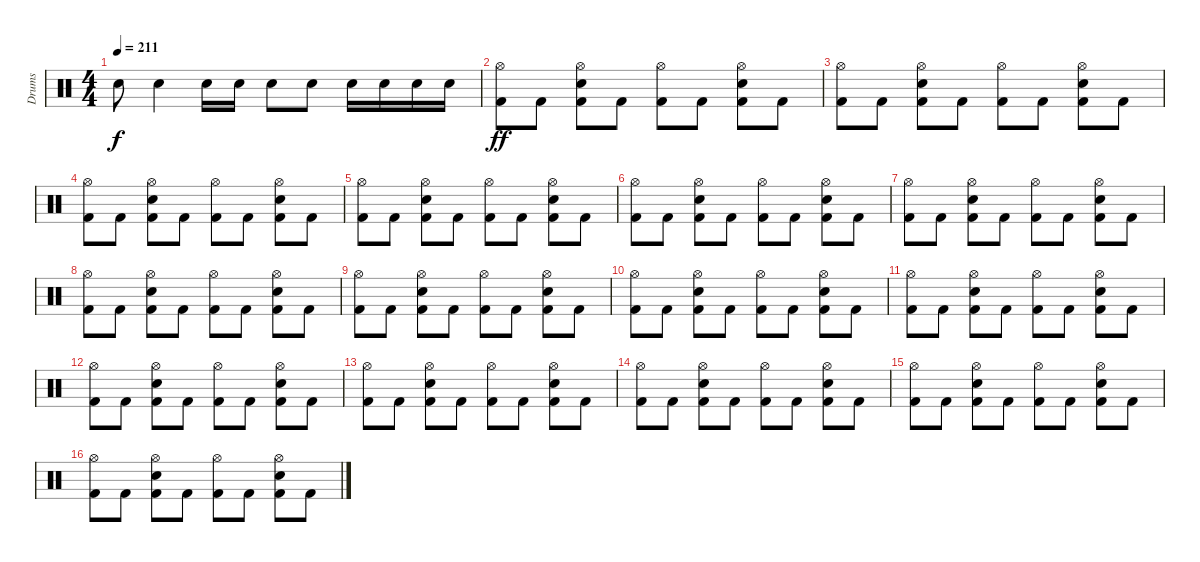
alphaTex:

\track ("Drums" "Drums") {instrument percussion}
\staff {score}
\articulation defaults
\ts (4 4)
\tempo 211
\clef neutral
\ks c "Snare (hit) 2".8{dy f} "Snare (hit) 2".4 "Snare (hit) 2".16 "Snare (hit) 2".16 "Snare (hit) 2".8 "Snare (hit) 2".8 "Snare (hit) 2".16 "Snare (hit) 2".16 "Snare (hit) 2".16 "Snare (hit) 2".16
|
("Kick (hit) 2" "Hi-Hat (open)").8{dy ff} "Kick (hit) 2".8 ("Kick (hit) 2" "Snare (hit) 2" "Hi-Hat (open)").8 "Kick (hit) 2".8 ("Kick (hit) 2" "Hi-Hat (open)").8 "Kick (hit) 2".8 ("Kick (hit) 2" "Snare (hit) 2" "Hi-Hat (open)").8 "Kick (hit) 2".8 |
("Kick (hit) 2" "Hi-Hat (open)").8 "Kick (hit) 2".8 ("Kick (hit) 2" "Snare (hit) 2" "Hi-Hat (open)").8 "Kick (hit) 2".8 ("Kick (hit) 2" "Hi-Hat (open)").8 "Kick (hit) 2".8 ("Kick (hit) 2" "Snare (hit) 2" "Hi-Hat (open)").8 "Kick (hit) 2".8 |
("Kick (hit) 2" "Hi-Hat (open)").8 "Kick (hit) 2".8 ("Kick (hit) 2" "Snare (hit) 2" "Hi-Hat (open)").8 "Kick (hit) 2".8 ("Kick (hit) 2" "Hi-Hat (open)").8 "Kick (hit) 2".8 ("Kick (hit) 2" "Snare (hit) 2" "Hi-Hat (open)").8 "Kick (hit) 2".8 |
("Kick (hit) 2" "Hi-Hat (open)").8 "Kick (hit) 2".8 ("Kick (hit) 2" "Snare (hit) 2" "Hi-Hat (open)").8 "Kick (hit) 2".8 ("Kick (hit) 2" "Hi-Hat (open)").8 "Kick (hit) 2".8 ("Kick (hit) 2" "Snare (hit) 2" "Hi-Hat (open)").8 "Kick (hit) 2".8 |
("Kick (hit) 2" "Hi-Hat (open)").8 "Kick (hit) 2".8 ("Kick (hit) 2" "Snare (hit) 2" "Hi-Hat (open)").8 "Kick (hit) 2".8 ("Kick (hit) 2" "Hi-Hat (open)").8 "Kick (hit) 2".8 ("Kick (hit) 2" "Snare (hit) 2" "Hi-Hat (open)").8 "Kick (hit) 2".8 |
("Kick (hit) 2" "Hi-Hat (open)").8 "Kick (hit) 2".8 ("Kick (hit) 2" "Snare (hit) 2" "Hi-Hat (open)").8 "Kick (hit) 2".8 ("Kick (hit) 2" "Hi-Hat (open)").8 "Kick (hit) 2".8 ("Kick (hit) 2" "Snare (hit) 2" "Hi-Hat (open)").8 "Kick (hit) 2".8 |
("Kick (hit) 2" "Hi-Hat (open)").8 "Kick (hit) 2".8 ("Kick (hit) 2" "Snare (hit) 2" "Hi-Hat (open)").8 "Kick (hit) 2".8 ("Kick (hit) 2" "Hi-Hat (open)").8 "Kick (hit) 2".8 ("Kick (hit) 2" "Snare (hit) 2" "Hi-Hat (open)").8 "Kick (hit) 2".8 |
("Kick (hit) 2" "Hi-Hat (open)").8 "Kick (hit) 2".8 ("Kick (hit) 2" "Snare (hit) 2" "Hi-Hat (open)").8 "Kick (hit) 2".8 ("Kick (hit) 2" "Hi-Hat (open)").8 "Kick (hit) 2".8 ("Kick (hit) 2" "Snare (hit) 2" "Hi-Hat (open)").8 "Kick (hit) 2".8 |
("Kick (hit) 2" "Hi-Hat (open)").8 "Kick (hit) 2".8 ("Kick (hit) 2" "Snare (hit) 2" "Hi-Hat (open)").8 "Kick (hit) 2".8 ("Kick (hit) 2" "Hi-Hat (open)").8 "Kick (hit) 2".8 ("Kick (hit) 2" "Snare (hit) 2" "Hi-Hat (open)").8 "Kick (hit) 2".8 |
("Kick (hit) 2" "Hi-Hat (open)").8 "Kick (hit) 2".8 ("Kick (hit) 2" "Snare (hit) 2" "Hi-Hat (open)").8 "Kick (hit) 2".8 ("Kick (hit) 2" "Hi-Hat (open)").8 "Kick (hit) 2".8 ("Kick (hit) 2" "Snare (hit) 2" "Hi-Hat (open)").8 "Kick (hit) 2".8 |
("Kick (hit) 2" "Hi-Hat (open)").8 "Kick (hit) 2".8 ("Kick (hit) 2" "Snare (hit) 2" "Hi-Hat (open)").8 "Kick (hit) 2".8 ("Kick (hit) 2" "Hi-Hat (open)").8 "Kick (hit) 2".8 ("Kick (hit) 2" "Snare (hit) 2" "Hi-Hat (open)").8 "Kick (hit) 2".8 |
("Kick (hit) 2" "Hi-Hat (open)").8 "Kick (hit) 2".8 ("Kick (hit) 2" "Snare (hit) 2" "Hi-Hat (open)").8 "Kick (hit) 2".8 ("Kick (hit) 2" "Hi-Hat (open)").8 "Kick (hit) 2".8 ("Kick (hit) 2" "Snare (hit) 2" "Hi-Hat (open)").8 "Kick (hit) 2".8 |
("Kick (hit) 2" "Hi-Hat (open)").8 "Kick (hit) 2".8 ("Kick (hit) 2" "Snare (hit) 2" "Hi-Hat (open)").8 "Kick (hit) 2".8 ("Kick (hit) 2" "Hi-Hat (open)").8 "Kick (hit) 2".8 ("Kick (hit) 2" "Snare (hit) 2" "Hi-Hat (open)").8 "Kick (hit) 2".8 |
("Kick (hit) 2" "Hi-Hat (open)").8 "Kick (hit) 2".8 ("Kick (hit) 2" "Snare (hit) 2" "Hi-Hat (open)").8 "Kick (hit) 2".8 ("Kick (hit) 2" "Hi-Hat (open)").8 "Kick (hit) 2".8 ("Kick (hit) 2" "Snare (hit) 2" "Hi-Hat (open)").8 "Kick (hit) 2".8 |
("Kick (hit) 2" "Hi-Hat (open)").8 "Kick (hit) 2".8 ("Kick (hit) 2" "Snare (hit) 2" "Hi-Hat (open)").8 "Kick (hit) 2".8 ("Kick (hit) 2" "Hi-Hat (open)").8 "Kick (hit) 2".8 ("Kick (hit) 2" "Snare (hit) 2" "Hi-Hat (open)").8 "Kick (hit) 2".8
